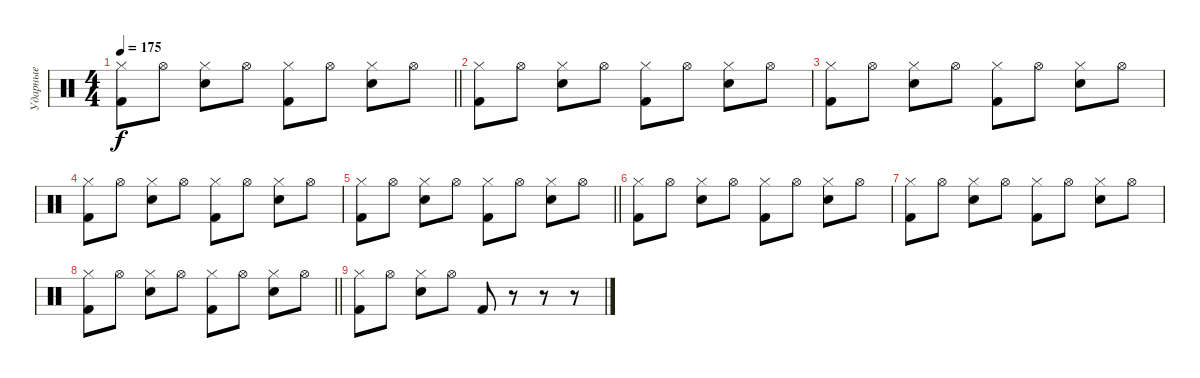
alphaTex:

\track ("Ударные" "Ударные") {instrument percussion}
\staff {score}
\articulation defaults
\ts (4 4)
\tempo 175
\clef neutral
\barLineRight lightlight
\ks c
("Hi-Hat (closed)" "Kick (hit) 2").8{dy f} "Hi-Hat (open)".8 ("Hi-Hat (closed)" "Electric Snare (hit)").8 "Hi-Hat (open)".8 ("Hi-Hat (closed)" "Kick (hit) 2").8 "Hi-Hat (open)".8 ("Hi-Hat (closed)" "Electric Snare (hit)").8 "Hi-Hat (open)".8 |
("Hi-Hat (closed)" "Kick (hit) 2").8 "Hi-Hat (open)".8 ("Hi-Hat (closed)" "Electric Snare (hit)").8 "Hi-Hat (open)".8 ("Hi-Hat (closed)" "Kick (hit) 2").8 "Hi-Hat (open)".8 ("Hi-Hat (closed)" "Electric Snare (hit)").8 "Hi-Hat (open)".8 |
("Hi-Hat (closed)" "Kick (hit) 2").8 "Hi-Hat (open)".8 ("Hi-Hat (closed)" "Electric Snare (hit)").8 "Hi-Hat (open)".8 ("Hi-Hat (closed)" "Kick (hit) 2").8 "Hi-Hat (open)".8 ("Hi-Hat (closed)" "Electric Snare (hit)").8 "Hi-Hat (open)".8 |
("Hi-Hat (closed)" "Kick (hit) 2").8 "Hi-Hat (open)".8 ("Hi-Hat (closed)" "Electric Snare (hit)").8 "Hi-Hat (open)".8 ("Hi-Hat (closed)" "Kick (hit) 2").8 "Hi-Hat (open)".8 ("Hi-Hat (closed)" "Electric Snare (hit)").8 "Hi-Hat (open)".8 |
\barLineRight lightlight
("Hi-Hat (closed)" "Kick (hit) 2").8 "Hi-Hat (open)".8 ("Hi-Hat (closed)" "Electric Snare (hit)").8 "Hi-Hat (open)".8 ("Hi-Hat (closed)" "Kick (hit) 2").8 "Hi-Hat (open)".8 ("Hi-Hat (closed)" "Electric Snare (hit)").8 "Hi-Hat (open)".8 |
("Hi-Hat (closed)" "Kick (hit) 2").8 "Hi-Hat (open)".8 ("Hi-Hat (closed)" "Electric Snare (hit)").8 "Hi-Hat (open)".8 ("Hi-Hat (closed)" "Kick (hit) 2").8 "Hi-Hat (open)".8 ("Hi-Hat (closed)" "Electric Snare (hit)").8 "Hi-Hat (open)".8 |
("Hi-Hat (closed)" "Kick (hit) 2").8 "Hi-Hat (open)".8 ("Hi-Hat (closed)" "Electric Snare (hit)").8 "Hi-Hat (open)".8 ("Hi-Hat (closed)" "Kick (hit) 2").8 "Hi-Hat (open)".8 ("Hi-Hat (closed)" "Electric Snare (hit)").8 "Hi-Hat (open)".8 |
\barLineRight lightlight
("Hi-Hat (closed)" "Kick (hit) 2").8 "Hi-Hat (open)".8 ("Hi-Hat (closed)" "Electric Snare (hit)").8 "Hi-Hat (open)".8 ("Hi-Hat (closed)" "Kick (hit) 2").8 "Hi-Hat (open)".8 ("Hi-Hat (closed)" "Electric Snare (hit)").8 "Hi-Hat (open)".8 |
("Kick (hit) 2" "Hi-Hat (closed)").8 "Hi-Hat (open)".8 ("Hi-Hat (closed)" "Snare (hit) 2").8 "Hi-Hat (open)".8 "Kick (hit) 2".8 r.8 r.8 r.8
